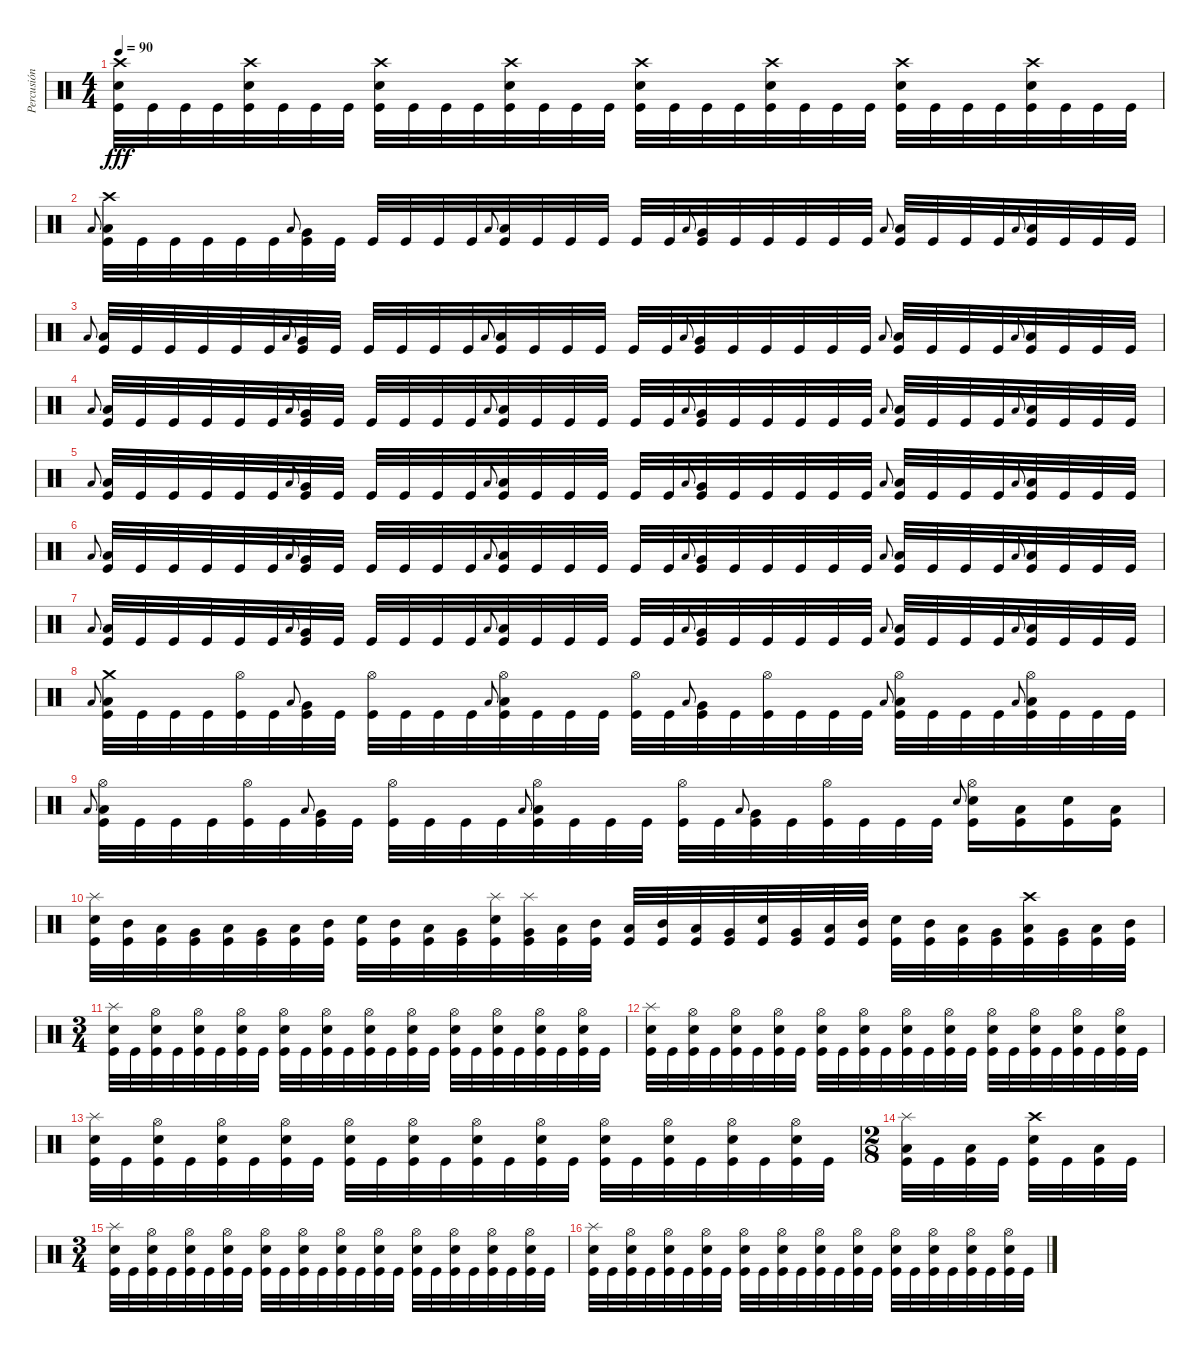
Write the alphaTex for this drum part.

\track ("Percusión" "Percusión") {instrument percussion}
\staff {score}
\articulation defaults
\ts (4 4)
\tempo 90
\clef neutral
\ks c
("Crash high (hit)" "Snare (hit) 2" "Kick (hit)").32{dy fff} "Kick (hit)".32 "Kick (hit)".32 "Kick (hit)".32 ("Crash high (hit)" "Snare (hit) 2" "Kick (hit)").32 "Kick (hit)".32 "Kick (hit)".32 "Kick (hit)".32 ("Crash high (hit)" "Snare (hit) 2" "Kick (hit)").32 "Kick (hit)".32 "Kick (hit)".32 "Kick (hit)".32 ("Crash high (hit)" "Snare (hit) 2" "Kick (hit)").32 "Kick (hit)".32 "Kick (hit)".32 "Kick (hit)".32 ("Crash high (hit)" "Snare (hit) 2" "Kick (hit)").32 "Kick (hit)".32 "Kick (hit)".32 "Kick (hit)".32 ("Crash high (hit)" "Snare (hit) 2" "Kick (hit)").32 "Kick (hit)".32 "Kick (hit)".32 "Kick (hit)".32 ("Crash high (hit)" "Snare (hit) 2" "Kick (hit)").32 "Kick (hit)".32 "Kick (hit)".32 "Kick (hit)".32 ("Crash high (hit)" "Snare (hit) 2" "Kick (hit)").32 "Kick (hit)".32 "Kick (hit)".32 "Kick (hit)".32 |
"Low Floor Tom (hit)".8{gr onbeat} ("Crash high (hit)" "Low Tom (hit)" "Kick (hit)").32 "Kick (hit)".32 "Kick (hit)".32 "Kick (hit)".32 "Kick (hit)".32 "Kick (hit)".32 "Low Floor Tom (hit)".8{gr onbeat} ("Very Low Tom (hit)" "Kick (hit)").32 "Kick (hit)".32 "Kick (hit)".32 "Kick (hit)".32 "Kick (hit)".32 "Kick (hit)".32 "Low Floor Tom (hit)".8{gr onbeat} ("Low Tom (hit)" "Kick (hit)").32 "Kick (hit)".32 "Kick (hit)".32 "Kick (hit)".32 "Kick (hit)".32 "Kick (hit)".32 "Low Floor Tom (hit)".8{gr onbeat} ("Very Low Tom (hit)" "Kick (hit)").32 "Kick (hit)".32 "Kick (hit)".32 "Kick (hit)".32 "Kick (hit)".32 "Kick (hit)".32 "Low Floor Tom (hit)".8{gr onbeat} ("Low Floor Tom (hit)" "Kick (hit)").32 "Kick (hit)".32 "Kick (hit)".32 "Kick (hit)".32 "Low Floor Tom (hit)".8{gr onbeat} ("Low Floor Tom (hit)" "Kick (hit)").32 "Kick (hit)".32 "Kick (hit)".32 "Kick (hit)".32 |
"Low Floor Tom (hit)".8{gr onbeat} ("Low Tom (hit)" "Kick (hit)").32 "Kick (hit)".32 "Kick (hit)".32 "Kick (hit)".32 "Kick (hit)".32 "Kick (hit)".32 "Low Floor Tom (hit)".8{gr onbeat} ("Very Low Tom (hit)" "Kick (hit)").32 "Kick (hit)".32 "Kick (hit)".32 "Kick (hit)".32 "Kick (hit)".32 "Kick (hit)".32 "Low Floor Tom (hit)".8{gr onbeat} ("Low Tom (hit)" "Kick (hit)").32 "Kick (hit)".32 "Kick (hit)".32 "Kick (hit)".32 "Kick (hit)".32 "Kick (hit)".32 "Low Floor Tom (hit)".8{gr onbeat} ("Very Low Tom (hit)" "Kick (hit)").32 "Kick (hit)".32 "Kick (hit)".32 "Kick (hit)".32 "Kick (hit)".32 "Kick (hit)".32 "Low Floor Tom (hit)".8{gr onbeat} ("Low Floor Tom (hit)" "Kick (hit)").32 "Kick (hit)".32 "Kick (hit)".32 "Kick (hit)".32 "Low Floor Tom (hit)".8{gr onbeat} ("Low Floor Tom (hit)" "Kick (hit)").32 "Kick (hit)".32 "Kick (hit)".32 "Kick (hit)".32 |
"Low Floor Tom (hit)".8{gr onbeat} ("Low Tom (hit)" "Kick (hit)").32 "Kick (hit)".32 "Kick (hit)".32 "Kick (hit)".32 "Kick (hit)".32 "Kick (hit)".32 "Low Floor Tom (hit)".8{gr onbeat} ("Very Low Tom (hit)" "Kick (hit)").32 "Kick (hit)".32 "Kick (hit)".32 "Kick (hit)".32 "Kick (hit)".32 "Kick (hit)".32 "Low Floor Tom (hit)".8{gr onbeat} ("Low Tom (hit)" "Kick (hit)").32 "Kick (hit)".32 "Kick (hit)".32 "Kick (hit)".32 "Kick (hit)".32 "Kick (hit)".32 "Low Floor Tom (hit)".8{gr onbeat} ("Very Low Tom (hit)" "Kick (hit)").32 "Kick (hit)".32 "Kick (hit)".32 "Kick (hit)".32 "Kick (hit)".32 "Kick (hit)".32 "Low Floor Tom (hit)".8{gr onbeat} ("Low Floor Tom (hit)" "Kick (hit)").32 "Kick (hit)".32 "Kick (hit)".32 "Kick (hit)".32 "Low Floor Tom (hit)".8{gr onbeat} ("Low Floor Tom (hit)" "Kick (hit)").32 "Kick (hit)".32 "Kick (hit)".32 "Kick (hit)".32 |
"Low Floor Tom (hit)".8{gr onbeat} ("Low Tom (hit)" "Kick (hit)").32 "Kick (hit)".32 "Kick (hit)".32 "Kick (hit)".32 "Kick (hit)".32 "Kick (hit)".32 "Low Floor Tom (hit)".8{gr onbeat} ("Very Low Tom (hit)" "Kick (hit)").32 "Kick (hit)".32 "Kick (hit)".32 "Kick (hit)".32 "Kick (hit)".32 "Kick (hit)".32 "Low Floor Tom (hit)".8{gr onbeat} ("Low Tom (hit)" "Kick (hit)").32 "Kick (hit)".32 "Kick (hit)".32 "Kick (hit)".32 "Kick (hit)".32 "Kick (hit)".32 "Low Floor Tom (hit)".8{gr onbeat} ("Very Low Tom (hit)" "Kick (hit)").32 "Kick (hit)".32 "Kick (hit)".32 "Kick (hit)".32 "Kick (hit)".32 "Kick (hit)".32 "Low Floor Tom (hit)".8{gr onbeat} ("Low Floor Tom (hit)" "Kick (hit)").32 "Kick (hit)".32 "Kick (hit)".32 "Kick (hit)".32 "Low Floor Tom (hit)".8{gr onbeat} ("Low Floor Tom (hit)" "Kick (hit)").32 "Kick (hit)".32 "Kick (hit)".32 "Kick (hit)".32 |
"Low Floor Tom (hit)".8{gr onbeat} ("Low Tom (hit)" "Kick (hit)").32 "Kick (hit)".32 "Kick (hit)".32 "Kick (hit)".32 "Kick (hit)".32 "Kick (hit)".32 "Low Floor Tom (hit)".8{gr onbeat} ("Very Low Tom (hit)" "Kick (hit)").32 "Kick (hit)".32 "Kick (hit)".32 "Kick (hit)".32 "Kick (hit)".32 "Kick (hit)".32 "Low Floor Tom (hit)".8{gr onbeat} ("Low Tom (hit)" "Kick (hit)").32 "Kick (hit)".32 "Kick (hit)".32 "Kick (hit)".32 "Kick (hit)".32 "Kick (hit)".32 "Low Floor Tom (hit)".8{gr onbeat} ("Very Low Tom (hit)" "Kick (hit)").32 "Kick (hit)".32 "Kick (hit)".32 "Kick (hit)".32 "Kick (hit)".32 "Kick (hit)".32 "Low Floor Tom (hit)".8{gr onbeat} ("Low Floor Tom (hit)" "Kick (hit)").32 "Kick (hit)".32 "Kick (hit)".32 "Kick (hit)".32 "Low Floor Tom (hit)".8{gr onbeat} ("Low Floor Tom (hit)" "Kick (hit)").32 "Kick (hit)".32 "Kick (hit)".32 "Kick (hit)".32 |
"Low Floor Tom (hit)".8{gr onbeat} ("Low Tom (hit)" "Kick (hit)").32 "Kick (hit)".32 "Kick (hit)".32 "Kick (hit)".32 "Kick (hit)".32 "Kick (hit)".32 "Low Floor Tom (hit)".8{gr onbeat} ("Very Low Tom (hit)" "Kick (hit)").32 "Kick (hit)".32 "Kick (hit)".32 "Kick (hit)".32 "Kick (hit)".32 "Kick (hit)".32 "Low Floor Tom (hit)".8{gr onbeat} ("Low Tom (hit)" "Kick (hit)").32 "Kick (hit)".32 "Kick (hit)".32 "Kick (hit)".32 "Kick (hit)".32 "Kick (hit)".32 "Low Floor Tom (hit)".8{gr onbeat} ("Very Low Tom (hit)" "Kick (hit)").32 "Kick (hit)".32 "Kick (hit)".32 "Kick (hit)".32 "Kick (hit)".32 "Kick (hit)".32 "Low Floor Tom (hit)".8{gr onbeat} ("Low Floor Tom (hit)" "Kick (hit)").32 "Kick (hit)".32 "Kick (hit)".32 "Kick (hit)".32 "Low Floor Tom (hit)".8{gr onbeat} ("Low Floor Tom (hit)" "Kick (hit)").32 "Kick (hit)".32 "Kick (hit)".32 "Kick (hit)".32 |
"Low Floor Tom (hit)".8{gr onbeat} ("Crash medium (hit)" "Low Tom (hit)" "Kick (hit)").32 "Kick (hit)".32 "Kick (hit)".32 "Kick (hit)".32 ("Hi-Hat (open)" "Kick (hit)").32 "Kick (hit)".32 "Low Floor Tom (hit)".8{gr onbeat} ("Very Low Tom (hit)" "Kick (hit)").32 "Kick (hit)".32 ("Hi-Hat (open)" "Kick (hit)").32 "Kick (hit)".32 "Kick (hit)".32 "Kick (hit)".32 "Low Floor Tom (hit)".8{gr onbeat} ("Hi-Hat (open)" "Low Tom (hit)" "Kick (hit)").32 "Kick (hit)".32 "Kick (hit)".32 "Kick (hit)".32 ("Hi-Hat (open)" "Kick (hit)").32 "Kick (hit)".32 "Low Floor Tom (hit)".8{gr onbeat} ("Very Low Tom (hit)" "Kick (hit)").32 "Kick (hit)".32 ("Hi-Hat (open)" "Kick (hit)").32 "Kick (hit)".32 "Kick (hit)".32 "Kick (hit)".32 "Low Floor Tom (hit)".8{gr onbeat} ("Hi-Hat (open)" "Low Floor Tom (hit)" "Kick (hit)").32 "Kick (hit)".32 "Kick (hit)".32 "Kick (hit)".32 "Low Floor Tom (hit)".8{gr onbeat} ("Hi-Hat (open)" "Low Floor Tom (hit)" "Kick (hit)").32 "Kick (hit)".32 "Kick (hit)".32 "Kick (hit)".32 |
"Low Floor Tom (hit)".8{gr onbeat} ("Hi-Hat (open)" "Low Tom (hit)" "Kick (hit)").32 "Kick (hit)".32 "Kick (hit)".32 "Kick (hit)".32 ("Hi-Hat (open)" "Kick (hit)").32 "Kick (hit)".32 "Low Floor Tom (hit)".8{gr onbeat} ("Very Low Tom (hit)" "Kick (hit)").32 "Kick (hit)".32 ("Hi-Hat (open)" "Kick (hit)").32 "Kick (hit)".32 "Kick (hit)".32 "Kick (hit)".32 "Low Floor Tom (hit)".8{gr onbeat} ("Hi-Hat (open)" "Low Tom (hit)" "Kick (hit)").32 "Kick (hit)".32 "Kick (hit)".32 "Kick (hit)".32 ("Hi-Hat (open)" "Kick (hit)").32 "Kick (hit)".32 "Low Floor Tom (hit)".8{gr onbeat} ("Very Low Tom (hit)" "Kick (hit)").32 "Kick (hit)".32 ("Hi-Hat (open)" "Kick (hit)").32 "Kick (hit)".32 "Kick (hit)".32 "Kick (hit)".32 "Snare (hit) 2".8{gr onbeat} ("Hi-Hat (open)" "Snare (hit) 2" "Kick (hit)").16 ("Low Floor Tom (hit)" "Kick (hit)").16 ("Snare (hit) 2" "Kick (hit)").16 ("Low Floor Tom (hit)" "Kick (hit)").16 |
("Splash (hit)" "Snare (hit) 2" "Kick (hit)").32 ("Mid Tom (hit)" "Kick (hit)").32 ("Low Tom (hit)" "Kick (hit)").32 ("Very Low Tom (hit)" "Kick (hit)").32 ("Low Floor Tom (hit)" "Kick (hit)").32 ("Very Low Tom (hit)" "Kick (hit)").32 ("Low Tom (hit)" "Kick (hit)").32 ("Mid Tom (hit)" "Kick (hit)").32 ("Snare (hit) 2" "Kick (hit)").32 ("Mid Tom (hit)" "Kick (hit)").32 ("Low Tom (hit)" "Kick (hit)").32 ("Very Low Tom (hit)" "Kick (hit)").32 ("Splash (hit)" "Snare (hit) 2" "Kick (hit)").32 ("Splash (hit)" "Very Low Tom (hit)" "Kick (hit)").32 ("Low Tom (hit)" "Kick (hit)").32 ("Mid Tom (hit)" "Kick (hit)").32 ("Low Tom (hit)" "Kick (hit)").32 ("Mid Tom (hit)" "Kick (hit)").32 ("Low Tom (hit)" "Kick (hit)").32 ("Very Low Tom (hit)" "Kick (hit)").32 ("Snare (hit) 2" "Kick (hit)").32 ("Very Low Tom (hit)" "Kick (hit)").32 ("Low Tom (hit)" "Kick (hit)").32 ("Mid Tom (hit)" "Kick (hit)").32 ("Snare (hit) 2" "Kick (hit)").32 ("Mid Tom (hit)" "Kick (hit)").32 ("Low Tom (hit)" "Kick (hit)").32 ("Very Low Tom (hit)" "Kick (hit)").32 ("Crash high (hit)" "Low Tom (hit)" "Kick (hit)").32 ("Very Low Tom (hit)" "Kick (hit)").32 ("Low Tom (hit)" "Kick (hit)").32 ("Mid Tom (hit)" "Kick (hit)").32 |
\ts (3 4)
("Splash (hit)" "Snare (hit) 2" "Kick (hit)").32 "Kick (hit)".32 ("Hi-Hat (open)" "Snare (hit) 2" "Kick (hit)").32 "Kick (hit)".32 ("Hi-Hat (open)" "Snare (hit) 2" "Kick (hit)").32 "Kick (hit)".32 ("Hi-Hat (open)" "Snare (hit) 2" "Kick (hit)").32 "Kick (hit)".32 ("Hi-Hat (open)" "Snare (hit) 2" "Kick (hit)").32 "Kick (hit)".32 ("Hi-Hat (open)" "Snare (hit) 2" "Kick (hit)").32 "Kick (hit)".32 ("Hi-Hat (open)" "Snare (hit) 2" "Kick (hit)").32 "Kick (hit)".32 ("Hi-Hat (open)" "Snare (hit) 2" "Kick (hit)").32 "Kick (hit)".32 ("Hi-Hat (open)" "Snare (hit) 2" "Kick (hit)").32 "Kick (hit)".32 ("Hi-Hat (open)" "Snare (hit) 2" "Kick (hit)").32 "Kick (hit)".32 ("Hi-Hat (open)" "Snare (hit) 2" "Kick (hit)").32 "Kick (hit)".32 ("Hi-Hat (open)" "Snare (hit) 2" "Kick (hit)").32 "Kick (hit)".32 |
("Splash (hit)" "Snare (hit) 2" "Kick (hit)").32 "Kick (hit)".32 ("Hi-Hat (open)" "Snare (hit) 2" "Kick (hit)").32 "Kick (hit)".32 ("Hi-Hat (open)" "Snare (hit) 2" "Kick (hit)").32 "Kick (hit)".32 ("Hi-Hat (open)" "Snare (hit) 2" "Kick (hit)").32 "Kick (hit)".32 ("Hi-Hat (open)" "Snare (hit) 2" "Kick (hit)").32 "Kick (hit)".32 ("Hi-Hat (open)" "Snare (hit) 2" "Kick (hit)").32 "Kick (hit)".32 ("Hi-Hat (open)" "Snare (hit) 2" "Kick (hit)").32 "Kick (hit)".32 ("Hi-Hat (open)" "Snare (hit) 2" "Kick (hit)").32 "Kick (hit)".32 ("Hi-Hat (open)" "Snare (hit) 2" "Kick (hit)").32 "Kick (hit)".32 ("Hi-Hat (open)" "Snare (hit) 2" "Kick (hit)").32 "Kick (hit)".32 ("Hi-Hat (open)" "Snare (hit) 2" "Kick (hit)").32 "Kick (hit)".32 ("Hi-Hat (open)" "Snare (hit) 2" "Kick (hit)").32 "Kick (hit)".32 |
("Splash (hit)" "Snare (hit) 2" "Kick (hit)").32 "Kick (hit)".32 ("Hi-Hat (open)" "Snare (hit) 2" "Kick (hit)").32 "Kick (hit)".32 ("Hi-Hat (open)" "Snare (hit) 2" "Kick (hit)").32 "Kick (hit)".32 ("Hi-Hat (open)" "Snare (hit) 2" "Kick (hit)").32 "Kick (hit)".32 ("Hi-Hat (open)" "Snare (hit) 2" "Kick (hit)").32 "Kick (hit)".32 ("Hi-Hat (open)" "Snare (hit) 2" "Kick (hit)").32 "Kick (hit)".32 ("Hi-Hat (open)" "Snare (hit) 2" "Kick (hit)").32 "Kick (hit)".32 ("Hi-Hat (open)" "Snare (hit) 2" "Kick (hit)").32 "Kick (hit)".32 ("Hi-Hat (open)" "Snare (hit) 2" "Kick (hit)").32 "Kick (hit)".32 ("Hi-Hat (open)" "Snare (hit) 2" "Kick (hit)").32 "Kick (hit)".32 ("Hi-Hat (open)" "Snare (hit) 2" "Kick (hit)").32 "Kick (hit)".32 ("Hi-Hat (open)" "Snare (hit) 2" "Kick (hit)").32 "Kick (hit)".32 |
\ts (2 8)
("Splash (hit)" "Low Floor Tom (hit)" "Kick (hit)").32 "Kick (hit)".32 ("Low Floor Tom (hit)" "Kick (hit)").32 "Kick (hit)".32 ("Crash high (hit)" "Snare (hit) 2" "Kick (hit)").32 "Kick (hit)".32 ("Low Floor Tom (hit)" "Kick (hit)").32 "Kick (hit)".32 |
\ts (3 4)
("Splash (hit)" "Snare (hit) 2" "Kick (hit)").32 "Kick (hit)".32 ("Hi-Hat (open)" "Snare (hit) 2" "Kick (hit)").32 "Kick (hit)".32 ("Hi-Hat (open)" "Snare (hit) 2" "Kick (hit)").32 "Kick (hit)".32 ("Hi-Hat (open)" "Snare (hit) 2" "Kick (hit)").32 "Kick (hit)".32 ("Hi-Hat (open)" "Snare (hit) 2" "Kick (hit)").32 "Kick (hit)".32 ("Hi-Hat (open)" "Snare (hit) 2" "Kick (hit)").32 "Kick (hit)".32 ("Hi-Hat (open)" "Snare (hit) 2" "Kick (hit)").32 "Kick (hit)".32 ("Hi-Hat (open)" "Snare (hit) 2" "Kick (hit)").32 "Kick (hit)".32 ("Hi-Hat (open)" "Snare (hit) 2" "Kick (hit)").32 "Kick (hit)".32 ("Hi-Hat (open)" "Snare (hit) 2" "Kick (hit)").32 "Kick (hit)".32 ("Hi-Hat (open)" "Snare (hit) 2" "Kick (hit)").32 "Kick (hit)".32 ("Hi-Hat (open)" "Snare (hit) 2" "Kick (hit)").32 "Kick (hit)".32 |
("Splash (hit)" "Snare (hit) 2" "Kick (hit)").32 "Kick (hit)".32 ("Hi-Hat (open)" "Snare (hit) 2" "Kick (hit)").32 "Kick (hit)".32 ("Hi-Hat (open)" "Snare (hit) 2" "Kick (hit)").32 "Kick (hit)".32 ("Hi-Hat (open)" "Snare (hit) 2" "Kick (hit)").32 "Kick (hit)".32 ("Hi-Hat (open)" "Snare (hit) 2" "Kick (hit)").32 "Kick (hit)".32 ("Hi-Hat (open)" "Snare (hit) 2" "Kick (hit)").32 "Kick (hit)".32 ("Hi-Hat (open)" "Snare (hit) 2" "Kick (hit)").32 "Kick (hit)".32 ("Hi-Hat (open)" "Snare (hit) 2" "Kick (hit)").32 "Kick (hit)".32 ("Hi-Hat (open)" "Snare (hit) 2" "Kick (hit)").32 "Kick (hit)".32 ("Hi-Hat (open)" "Snare (hit) 2" "Kick (hit)").32 "Kick (hit)".32 ("Hi-Hat (open)" "Snare (hit) 2" "Kick (hit)").32 "Kick (hit)".32 ("Hi-Hat (open)" "Snare (hit) 2" "Kick (hit)").32 "Kick (hit)".32
